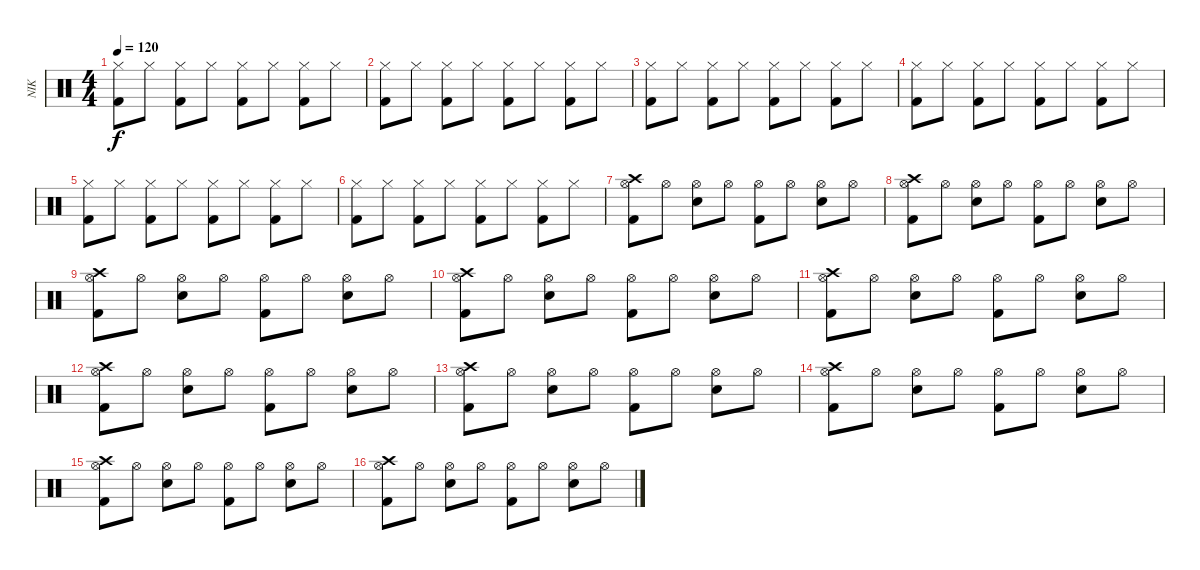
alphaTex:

\track ("NIK" "NIK") {instrument percussion}
\staff {score}
\articulation defaults
\ts (4 4)
\tempo 120
\clef neutral
\ks c
("Hi-Hat (closed)" "Kick (hit) 2").8{dy f} "Hi-Hat (closed)".8 ("Hi-Hat (closed)" "Kick (hit) 2").8 "Hi-Hat (closed)".8 ("Hi-Hat (closed)" "Kick (hit) 2").8 "Hi-Hat (closed)".8 ("Hi-Hat (closed)" "Kick (hit) 2").8 "Hi-Hat (closed)".8 |
("Hi-Hat (closed)" "Kick (hit) 2").8 "Hi-Hat (closed)".8 ("Hi-Hat (closed)" "Kick (hit) 2").8 "Hi-Hat (closed)".8 ("Hi-Hat (closed)" "Kick (hit) 2").8 "Hi-Hat (closed)".8 ("Hi-Hat (closed)" "Kick (hit) 2").8 "Hi-Hat (closed)".8 |
("Hi-Hat (closed)" "Kick (hit) 2").8 "Hi-Hat (closed)".8 ("Hi-Hat (closed)" "Kick (hit) 2").8 "Hi-Hat (closed)".8 ("Hi-Hat (closed)" "Kick (hit) 2").8 "Hi-Hat (closed)".8 ("Hi-Hat (closed)" "Kick (hit) 2").8 "Hi-Hat (closed)".8 |
("Hi-Hat (closed)" "Kick (hit) 2").8 "Hi-Hat (closed)".8 ("Hi-Hat (closed)" "Kick (hit) 2").8 "Hi-Hat (closed)".8 ("Hi-Hat (closed)" "Kick (hit) 2").8 "Hi-Hat (closed)".8 ("Hi-Hat (closed)" "Kick (hit) 2").8 "Hi-Hat (closed)".8 |
("Hi-Hat (closed)" "Kick (hit) 2").8 "Hi-Hat (closed)".8 ("Hi-Hat (closed)" "Kick (hit) 2").8 "Hi-Hat (closed)".8 ("Hi-Hat (closed)" "Kick (hit) 2").8 "Hi-Hat (closed)".8 ("Hi-Hat (closed)" "Kick (hit) 2").8 "Hi-Hat (closed)".8 |
("Hi-Hat (closed)" "Kick (hit) 2").8 "Hi-Hat (closed)".8 ("Hi-Hat (closed)" "Kick (hit) 2").8 "Hi-Hat (closed)".8 ("Hi-Hat (closed)" "Kick (hit) 2").8 "Hi-Hat (closed)".8 ("Hi-Hat (closed)" "Kick (hit) 2").8 "Hi-Hat (closed)".8 |
("Kick (hit) 2" "Crash high (hit)" "Hi-Hat (open)").8 "Hi-Hat (open)".8 ("Snare (hit) 2" "Hi-Hat (open)").8 "Hi-Hat (open)".8 ("Kick (hit) 2" "Hi-Hat (open)").8 "Hi-Hat (open)".8 ("Snare (hit) 2" "Hi-Hat (open)").8 "Hi-Hat (open)".8 |
("Kick (hit) 2" "Crash high (hit)" "Hi-Hat (open)").8 "Hi-Hat (open)".8 ("Snare (hit) 2" "Hi-Hat (open)").8 "Hi-Hat (open)".8 ("Kick (hit) 2" "Hi-Hat (open)").8 "Hi-Hat (open)".8 ("Snare (hit) 2" "Hi-Hat (open)").8 "Hi-Hat (open)".8 |
("Kick (hit) 2" "Crash high (hit)" "Hi-Hat (open)").8 "Hi-Hat (open)".8 ("Snare (hit) 2" "Hi-Hat (open)").8 "Hi-Hat (open)".8 ("Kick (hit) 2" "Hi-Hat (open)").8 "Hi-Hat (open)".8 ("Snare (hit) 2" "Hi-Hat (open)").8 "Hi-Hat (open)".8 |
("Kick (hit) 2" "Crash high (hit)" "Hi-Hat (open)").8 "Hi-Hat (open)".8 ("Snare (hit) 2" "Hi-Hat (open)").8 "Hi-Hat (open)".8 ("Kick (hit) 2" "Hi-Hat (open)").8 "Hi-Hat (open)".8 ("Snare (hit) 2" "Hi-Hat (open)").8 "Hi-Hat (open)".8 |
("Kick (hit) 2" "Crash high (hit)" "Hi-Hat (open)").8 "Hi-Hat (open)".8 ("Snare (hit) 2" "Hi-Hat (open)").8 "Hi-Hat (open)".8 ("Kick (hit) 2" "Hi-Hat (open)").8 "Hi-Hat (open)".8 ("Snare (hit) 2" "Hi-Hat (open)").8 "Hi-Hat (open)".8 |
("Kick (hit) 2" "Crash high (hit)" "Hi-Hat (open)").8 "Hi-Hat (open)".8 ("Snare (hit) 2" "Hi-Hat (open)").8 "Hi-Hat (open)".8 ("Kick (hit) 2" "Hi-Hat (open)").8 "Hi-Hat (open)".8 ("Snare (hit) 2" "Hi-Hat (open)").8 "Hi-Hat (open)".8 |
("Kick (hit) 2" "Crash high (hit)" "Hi-Hat (open)").8 "Hi-Hat (open)".8 ("Snare (hit) 2" "Hi-Hat (open)").8 "Hi-Hat (open)".8 ("Kick (hit) 2" "Hi-Hat (open)").8 "Hi-Hat (open)".8 ("Snare (hit) 2" "Hi-Hat (open)").8 "Hi-Hat (open)".8 |
("Kick (hit) 2" "Crash high (hit)" "Hi-Hat (open)").8 "Hi-Hat (open)".8 ("Snare (hit) 2" "Hi-Hat (open)").8 "Hi-Hat (open)".8 ("Kick (hit) 2" "Hi-Hat (open)").8 "Hi-Hat (open)".8 ("Snare (hit) 2" "Hi-Hat (open)").8 "Hi-Hat (open)".8 |
("Kick (hit) 2" "Crash high (hit)" "Hi-Hat (open)").8 "Hi-Hat (open)".8 ("Snare (hit) 2" "Hi-Hat (open)").8 "Hi-Hat (open)".8 ("Kick (hit) 2" "Hi-Hat (open)").8 "Hi-Hat (open)".8 ("Snare (hit) 2" "Hi-Hat (open)").8 "Hi-Hat (open)".8 |
("Kick (hit) 2" "Crash high (hit)" "Hi-Hat (open)").8 "Hi-Hat (open)".8 ("Snare (hit) 2" "Hi-Hat (open)").8 "Hi-Hat (open)".8 ("Kick (hit) 2" "Hi-Hat (open)").8 "Hi-Hat (open)".8 ("Snare (hit) 2" "Hi-Hat (open)").8 "Hi-Hat (open)".8
